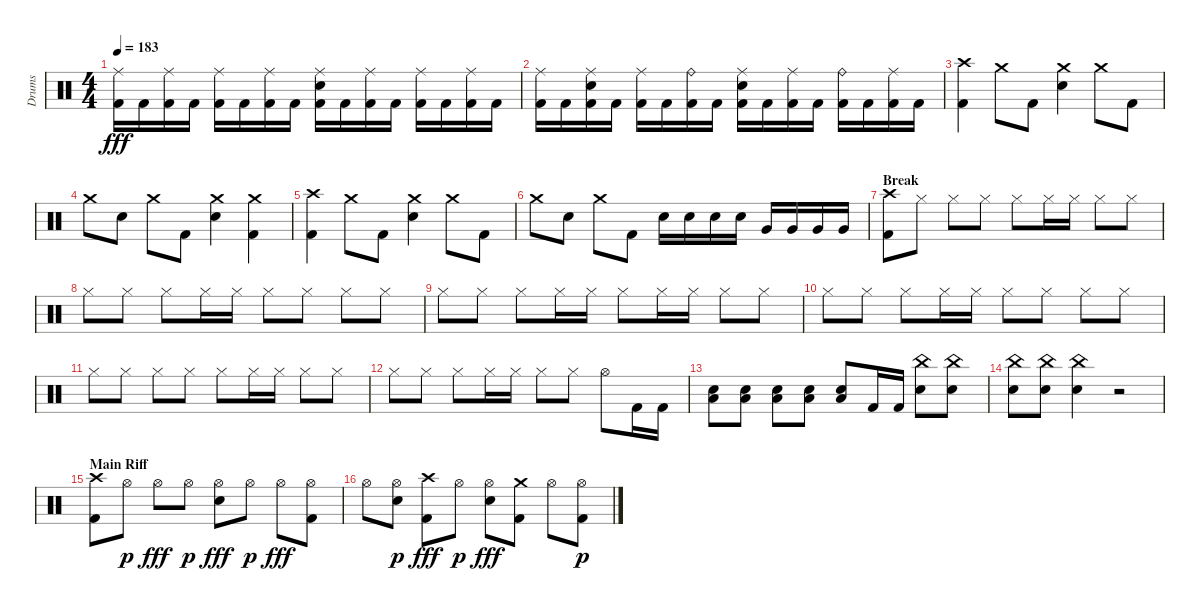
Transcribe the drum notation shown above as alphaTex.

\track ("Drums" "Drums") {instrument percussion}
\staff {score}
\articulation defaults
\ts (4 4)
\tempo 183
\clef neutral
\ks aminor
("Ride (middle)" "Kick (hit) 2").16{dy fff} "Kick (hit) 2".16 ("Ride (middle)" "Kick (hit) 2").16 "Kick (hit) 2".16 ("Kick (hit) 2" "Ride (middle)").16 "Kick (hit) 2".16 ("Ride (middle)" "Kick (hit) 2").16 "Kick (hit) 2".16 ("Kick (hit) 2" "Ride (middle)" "Snare (hit) 2").16 "Kick (hit) 2".16 ("Kick (hit) 2" "Ride (middle)").16 "Kick (hit) 2".16 ("Ride (middle)" "Kick (hit) 2").16 "Kick (hit) 2".16 ("Ride (middle)" "Kick (hit) 2").16 "Kick (hit) 2".16 |
("Ride (middle)" "Kick (hit) 2").16 "Kick (hit) 2".16 ("Ride (middle)" "Kick (hit) 2" "Snare (hit) 2").16 "Kick (hit) 2".16 ("Kick (hit) 2" "Ride (middle)").16 "Kick (hit) 2".16 ("Ride (bell)" "Kick (hit) 2").16 "Kick (hit) 2".16 ("Kick (hit) 2" "Ride (middle)" "Snare (hit) 2").16 "Kick (hit) 2".16 ("Kick (hit) 2" "Ride (middle)").16 "Kick (hit) 2".16 ("Kick (hit) 2" "Ride (bell)").16 "Kick (hit) 2".16 ("Kick (hit) 2" "Ride (middle)").16 "Kick (hit) 2".16 |
("Kick (hit) 2" "Crash high (hit)").4 "Crash medium (hit)".8 "Kick (hit) 2".8 ("Snare (hit) 2" "Crash medium (hit)").4 "Crash medium (hit)".8 "Kick (hit) 2".8 |
"Crash medium (hit)".8 "Snare (hit) 2".8 "Crash medium (hit)".8 "Kick (hit) 2".8 ("Crash medium (hit)" "Snare (hit) 2").4 ("Kick (hit) 2" "Crash medium (hit)").4 |
("Crash high (hit)" "Kick (hit) 2").4 "Crash medium (hit)".8 "Kick (hit) 2".8 ("Snare (hit) 2" "Crash medium (hit)").4 "Crash medium (hit)".8 "Kick (hit) 2".8 |
"Crash medium (hit)".8 "Snare (hit) 2".8 "Crash medium (hit)".8 "Kick (hit) 2".8 "Snare (hit) 2".16 "Snare (hit) 2".16 "Snare (hit) 2".16 "Snare (hit) 2".16 "Very Low Tom (hit)".16 "Very Low Tom (hit)".16 "Very Low Tom (hit)".16 "Very Low Tom (hit)".16 |
\section ("" "Break")
("Crash high (hit)" "Kick (hit) 2").8 "Hi-Hat (closed)".8 "Hi-Hat (closed)".8 "Hi-Hat (closed)".8 "Hi-Hat (closed)".8 "Hi-Hat (closed)".16 "Hi-Hat (closed)".16 "Hi-Hat (closed)".8 "Hi-Hat (closed)".8 |
"Hi-Hat (closed)".8 "Hi-Hat (closed)".8 "Hi-Hat (closed)".8 "Hi-Hat (closed)".16 "Hi-Hat (closed)".16 "Hi-Hat (closed)".8 "Hi-Hat (closed)".8 "Hi-Hat (closed)".8 "Hi-Hat (closed)".8 |
"Hi-Hat (closed)".8 "Hi-Hat (closed)".8 "Hi-Hat (closed)".8 "Hi-Hat (closed)".16 "Hi-Hat (closed)".16 "Hi-Hat (closed)".8 "Hi-Hat (closed)".16 "Hi-Hat (closed)".16 "Hi-Hat (closed)".8 "Hi-Hat (closed)".8 |
"Hi-Hat (closed)".8 "Hi-Hat (closed)".8 "Hi-Hat (closed)".8 "Hi-Hat (closed)".16 "Hi-Hat (closed)".16 "Hi-Hat (closed)".8 "Hi-Hat (closed)".8 "Hi-Hat (closed)".8 "Hi-Hat (closed)".8 |
"Hi-Hat (closed)".8 "Hi-Hat (closed)".8 "Hi-Hat (closed)".8 "Hi-Hat (closed)".8 "Hi-Hat (closed)".8 "Hi-Hat (closed)".16 "Hi-Hat (closed)".16 "Hi-Hat (closed)".8 "Hi-Hat (closed)".8 |
"Hi-Hat (closed)".8 "Hi-Hat (closed)".8 "Hi-Hat (closed)".8 "Hi-Hat (closed)".16 "Hi-Hat (closed)".16 "Hi-Hat (closed)".8 "Hi-Hat (closed)".8 "Hi-Hat (open)".8 "Kick (hit) 2".16 "Kick (hit) 2".16 |
("Low Floor Tom (hit)" "Snare (hit) 2").8 ("Low Floor Tom (hit)" "Snare (hit) 2").8 ("Low Floor Tom (hit)" "Snare (hit) 2").8 ("Low Floor Tom (hit)" "Snare (hit) 2").8 ("Snare (hit) 2" "Low Floor Tom (hit)").8 "Kick (hit) 2".16 "Kick (hit) 2".16 ("China (hit)" "Snare (hit) 2").8 ("China (hit)" "Snare (hit) 2").8 |
("Snare (hit) 2" "China (hit)").8 ("Snare (hit) 2" "China (hit)").8 ("China (hit)" "Snare (hit) 2").4 r.2 |
\section ("" "Main Riff")
("Kick (hit) 2" "Crash high (hit)").8 "Hi-Hat (open)".8{dy p} "Hi-Hat (open)".8{dy fff} "Hi-Hat (open)".8{dy p} ("Hi-Hat (open)" "Snare (hit) 2").8{dy fff} "Hi-Hat (open)".8{dy p} "Hi-Hat (open)".8{dy fff} ("Kick (hit) 2" "Hi-Hat (open)").8 |
"Hi-Hat (open)".8 ("Hi-Hat (open)" "Snare (hit) 2").8{dy p} ("Kick (hit) 2" "Crash high (hit)").8{dy fff} "Hi-Hat (open)".8{dy p} ("Snare (hit) 2" "Hi-Hat (open)").8{dy fff} ("Kick (hit) 2" "Crash medium (hit)").8 "Hi-Hat (open)".8 ("Kick (hit) 2" "Hi-Hat (open)").8{dy p}
